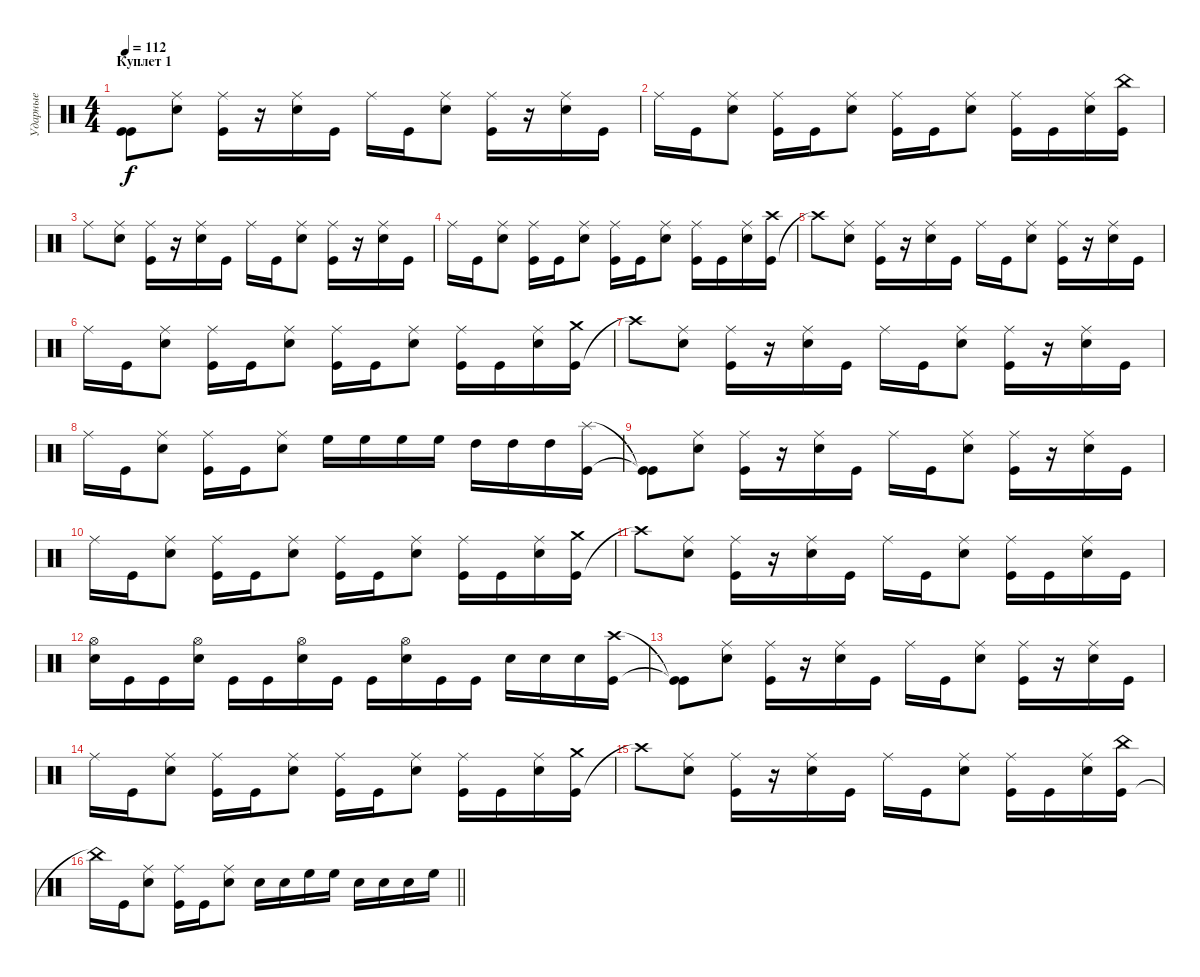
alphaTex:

\track ("Ударные" "Ударные") {instrument percussion}
\staff {score}
\articulation defaults
\ts (4 4)
\section ("" "Куплет 1")
\tempo 112
\clef neutral
\ks aminor
("Kick (hit)"{t} "Kick (hit)"{t}).8{dy f} ("Electric Snare (hit)" "Ride (middle)").8 ("Kick (hit)" "Ride (middle)").16 r.16 ("Electric Snare (hit)" "Ride (middle)").16 "Kick (hit)".16 "Ride (middle)".16 "Kick (hit)".16 ("Electric Snare (hit)" "Ride (middle)").8 ("Kick (hit)" "Ride (middle)").16 r.16 ("Electric Snare (hit)" "Ride (middle)").16 "Kick (hit)".16 |
"Ride (middle)".16 "Kick (hit)".16 ("Electric Snare (hit)" "Ride (middle)").8 ("Kick (hit)" "Ride (middle)").16 "Kick (hit)".16 ("Electric Snare (hit)" "Ride (middle)").8 ("Kick (hit)" "Ride (middle)").16 "Kick (hit)".16 ("Electric Snare (hit)" "Ride (middle)").8 ("Kick (hit)" "Ride (middle)").16 "Kick (hit)".16 ("Electric Snare (hit)" "Ride (middle)").16 ("Kick (hit)" "China (hit)").16 |
"Ride (middle)".8 ("Electric Snare (hit)" "Ride (middle)").8 ("Kick (hit)" "Ride (middle)").16 r.16 ("Electric Snare (hit)" "Ride (middle)").16 "Kick (hit)".16 "Ride (middle)".16 "Kick (hit)".16 ("Electric Snare (hit)" "Ride (middle)").8 ("Kick (hit)" "Ride (middle)").16 r.16 ("Electric Snare (hit)" "Ride (middle)").16 "Kick (hit)".16 |
"Ride (middle)".16 "Kick (hit)".16 ("Electric Snare (hit)" "Ride (middle)").8 ("Kick (hit)" "Ride (middle)").16 "Kick (hit)".16 ("Electric Snare (hit)" "Ride (middle)").8 ("Kick (hit)" "Ride (middle)").16 "Kick (hit)".16 ("Electric Snare (hit)" "Ride (middle)").8 ("Kick (hit)" "Ride (middle)").16 "Kick (hit)".16 ("Electric Snare (hit)" "Ride (middle)").16 ("Kick (hit)" "Crash high (hit)").16 |
"Crash high (hit)"{t}.8 ("Electric Snare (hit)" "Ride (middle)").8 ("Kick (hit)" "Ride (middle)").16 r.16 ("Electric Snare (hit)" "Ride (middle)").16 "Kick (hit)".16 "Ride (middle)".16 "Kick (hit)".16 ("Electric Snare (hit)" "Ride (middle)").8 ("Kick (hit)" "Ride (middle)").16 r.16 ("Electric Snare (hit)" "Ride (middle)").16 "Kick (hit)".16 |
"Ride (middle)".16 "Kick (hit)".16 ("Electric Snare (hit)" "Ride (middle)").8 ("Kick (hit)" "Ride (middle)").16 "Kick (hit)".16 ("Electric Snare (hit)" "Ride (middle)").8 ("Kick (hit)" "Ride (middle)").16 "Kick (hit)".16 ("Electric Snare (hit)" "Ride (middle)").8 ("Kick (hit)" "Ride (middle)").16 "Kick (hit)".16 ("Electric Snare (hit)" "Ride (middle)").16 ("Kick (hit)" "Crash medium (hit)").16 |
"Crash high (hit)"{t}.8 ("Electric Snare (hit)" "Ride (middle)").8 ("Kick (hit)" "Ride (middle)").16 r.16 ("Electric Snare (hit)" "Ride (middle)").16 "Kick (hit)".16 "Ride (middle)".16 "Kick (hit)".16 ("Electric Snare (hit)" "Ride (middle)").8 ("Kick (hit)" "Ride (middle)").16 r.16 ("Electric Snare (hit)" "Ride (middle)").16 "Kick (hit)".16 |
"Ride (middle)".16 "Kick (hit)".16 ("Electric Snare (hit)" "Ride (middle)").8 ("Kick (hit)" "Ride (middle)").16 "Kick (hit)".16 ("Electric Snare (hit)" "Ride (middle)").8 "High Floor Tom (hit)".16 "High Floor Tom (hit)".16 "High Floor Tom (hit)".16 "High Floor Tom (hit)".16 "High Tom (hit)".16 "High Tom (hit)".16 "High Tom (hit)".16 ("Kick (hit)" "Splash (hit)").16 |
("Kick (hit)"{t} "Kick (hit)"{t}).8 ("Electric Snare (hit)" "Ride (middle)").8 ("Kick (hit)" "Ride (middle)").16 r.16 ("Electric Snare (hit)" "Ride (middle)").16 "Kick (hit)".16 "Ride (middle)".16 "Kick (hit)".16 ("Electric Snare (hit)" "Ride (middle)").8 ("Kick (hit)" "Ride (middle)").16 r.16 ("Electric Snare (hit)" "Ride (middle)").16 "Kick (hit)".16 |
"Ride (middle)".16 "Kick (hit)".16 ("Electric Snare (hit)" "Ride (middle)").8 ("Kick (hit)" "Ride (middle)").16 "Kick (hit)".16 ("Electric Snare (hit)" "Ride (middle)").8 ("Kick (hit)" "Ride (middle)").16 "Kick (hit)".16 ("Electric Snare (hit)" "Ride (middle)").8 ("Kick (hit)" "Ride (middle)").16 "Kick (hit)".16 ("Electric Snare (hit)" "Ride (middle)").16 ("Kick (hit)" "Crash medium (hit)").16 |
"Crash high (hit)"{t}.8 ("Electric Snare (hit)" "Ride (middle)").8 ("Kick (hit)" "Ride (middle)").16 r.16 ("Electric Snare (hit)" "Ride (middle)").16 "Kick (hit)".16 "Ride (middle)".16 "Kick (hit)".16 ("Electric Snare (hit)" "Ride (middle)").8 ("Kick (hit)" "Ride (middle)").16 "Kick (hit)".16 ("Electric Snare (hit)" "Ride (middle)").16 "Kick (hit)".16 |
("Electric Snare (hit)" "Hi-Hat (open)").16 "Kick (hit)".16 "Kick (hit)".16 ("Electric Snare (hit)" "Hi-Hat (open)").16 "Kick (hit)".16 "Kick (hit)".16 ("Electric Snare (hit)" "Hi-Hat (open)").16 "Kick (hit)".16 "Kick (hit)".16 ("Electric Snare (hit)" "Hi-Hat (open)").16 "Kick (hit)".16 "Kick (hit)".16 "Electric Snare (hit)".16 "Electric Snare (hit)".16 "Electric Snare (hit)".16 ("Kick (hit)" "Crash high (hit)").16 |
("Kick (hit)"{t} "Kick (hit)"{t}).8 ("Electric Snare (hit)" "Ride (middle)").8 ("Kick (hit)" "Ride (middle)").16 r.16 ("Electric Snare (hit)" "Ride (middle)").16 "Kick (hit)".16 "Ride (middle)".16 "Kick (hit)".16 ("Electric Snare (hit)" "Ride (middle)").8 ("Kick (hit)" "Ride (middle)").16 r.16 ("Electric Snare (hit)" "Ride (middle)").16 "Kick (hit)".16 |
"Ride (middle)".16 "Kick (hit)".16 ("Electric Snare (hit)" "Ride (middle)").8 ("Kick (hit)" "Ride (middle)").16 "Kick (hit)".16 ("Electric Snare (hit)" "Ride (middle)").8 ("Kick (hit)" "Ride (middle)").16 "Kick (hit)".16 ("Electric Snare (hit)" "Ride (middle)").8 ("Kick (hit)" "Ride (middle)").16 "Kick (hit)".16 ("Electric Snare (hit)" "Ride (middle)").16 ("Kick (hit)" "Crash medium (hit)").16 |
"Crash high (hit)"{t}.8 ("Electric Snare (hit)" "Ride (middle)").8 ("Kick (hit)" "Ride (middle)").16 r.16 ("Electric Snare (hit)" "Ride (middle)").16 "Kick (hit)".16 "Ride (middle)".16 "Kick (hit)".16 ("Electric Snare (hit)" "Ride (middle)").8 ("Kick (hit)" "Ride (middle)").16 "Kick (hit)".16 ("Electric Snare (hit)" "Ride (middle)").16 ("Kick (hit)" "China (hit)").16 |
\barLineRight lightlight "China (hit)"{t}.16 "Kick (hit)".16
("Electric Snare (hit)" "Ride (middle)").8 ("Kick (hit)" "Ride (middle)").16 "Kick (hit)".16 ("Electric Snare (hit)" "Ride (middle)").8 "Electric Snare (hit)".16 "Electric Snare (hit)".16 "High Floor Tom (hit)".16 "High Floor Tom (hit)".16 "Electric Snare (hit)".16 "Electric Snare (hit)".16 "Electric Snare (hit)".16 "High Floor Tom (hit)".16
